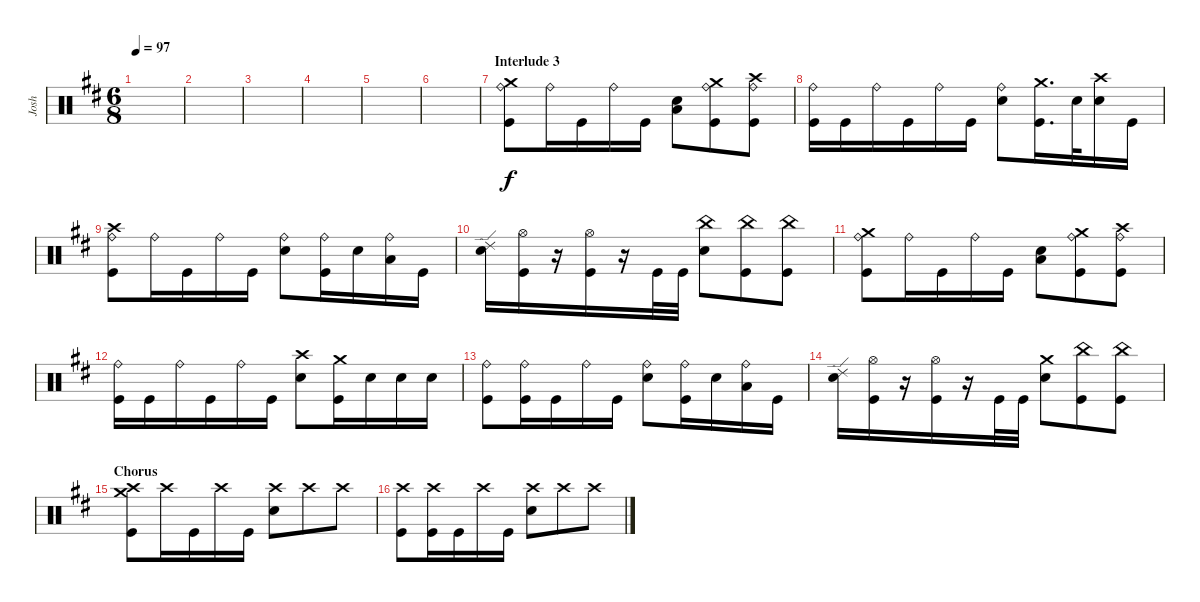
\track ("Josh" "Josh") {instrument percussion}
\staff {score}
\articulation defaults
\ts (6 8)
\tempo 97
\clef neutral
\ks bminor
|
|
|
|
|
|
\section ("" "Interlude 3")
("Kick (hit)" "Crash medium (hit)" "Ride (bell)").8 "Ride (bell)".16 "Kick (hit)".16 "Ride (bell)".16 "Kick (hit)".16 ("Snare (hit) 2" "Low Floor Tom (hit)").8 ("Kick (hit)" "Ride (bell)" "Crash medium (hit)").8 ("Kick (hit)" "Ride (bell)" "Crash high (hit)").8 |
("Kick (hit)" "Ride (bell)").16 "Kick (hit)".16 "Ride (bell)".16 "Kick (hit)".16 "Ride (bell)".16 "Kick (hit)".16 ("Snare (hit) 2" "Ride (bell)").8 ("Kick (hit)" "Crash medium (hit)").16{d} "Snare (hit) 2".32 ("Snare (hit) 2" "Crash high (hit)").16 "Kick (hit)".16 |
("Kick (hit)" "Ride (bell)" "Crash high (hit)").8 "Ride (bell)".16 "Kick (hit)".16 "Ride (bell)".16 "Kick (hit)".16 ("Snare (hit) 2" "Ride (bell)").8 ("Kick (hit)" "Ride (bell)").16 "Snare (hit) 2".16 ("Ride (bell)" "Low Floor Tom (hit)").16 "Kick (hit)".16 |
("Snare (hit) 2" "Ride (edge) 2").16 ("Kick (hit)" "Hi-Hat (open)").16 r.16 ("Kick (hit)" "Hi-Hat (open)").16 r.16 "Kick (hit)".32 "Kick (hit)".32 ("Snare (hit) 2" "China (hit)").8 ("Kick (hit)" "China (hit)").8 ("Kick (hit)" "China (hit)").8 |
("Kick (hit)" "Crash medium (hit)" "Ride (bell)").8 "Ride (bell)".16 "Kick (hit)".16 "Ride (bell)".16 "Kick (hit)".16 ("Snare (hit) 2" "Low Floor Tom (hit)").8 ("Kick (hit)" "Ride (bell)" "Crash medium (hit)").8 ("Kick (hit)" "Ride (bell)" "Crash high (hit)").8 |
("Kick (hit)" "Ride (bell)").16 "Kick (hit)".16 "Ride (bell)".16 "Kick (hit)".16 "Ride (bell)".16 "Kick (hit)".16 ("Snare (hit) 2" "Crash high (hit)").8 ("Kick (hit)" "Crash medium (hit)").16 "Snare (hit) 2".16 "Snare (hit) 2".16 "Snare (hit) 2".16 |
("Kick (hit)" "Ride (bell)").8 ("Kick (hit)" "Ride (bell)").16 "Kick (hit)".16 "Ride (bell)".16 "Kick (hit)".16 ("Snare (hit) 2" "Ride (bell)").8 ("Kick (hit)" "Ride (bell)").16 "Snare (hit) 2".16 ("Ride (bell)" "Low Floor Tom (hit)").16 "Kick (hit)".16 |
("Snare (hit) 2" "Ride (edge) 2").16 ("Kick (hit)" "Hi-Hat (open)").16 r.16 ("Kick (hit)" "Hi-Hat (open)").16 r.16 "Kick (hit)".32 "Kick (hit)".32 ("Snare (hit) 2" "Crash medium (hit)").8 ("Kick (hit)" "China (hit)").8 ("Kick (hit)" "China (hit)").8 |
\section ("" "Chorus")
("Kick (hit)" "Crash high (hit)" "Crash medium (hit)").8 "Crash high (hit)".16 "Kick (hit)".16 "Crash high (hit)".16 "Kick (hit)".16 ("Snare (hit) 2" "Crash high (hit)").8 "Crash high (hit)".8 "Crash high (hit)".8 |
("Kick (hit)" "Crash high (hit)").8 ("Kick (hit)" "Crash high (hit)").16 "Kick (hit)".16 "Crash high (hit)".16 "Kick (hit)".16 ("Snare (hit) 2" "Crash high (hit)").8 "Crash high (hit)".8 "Crash high (hit)".8
